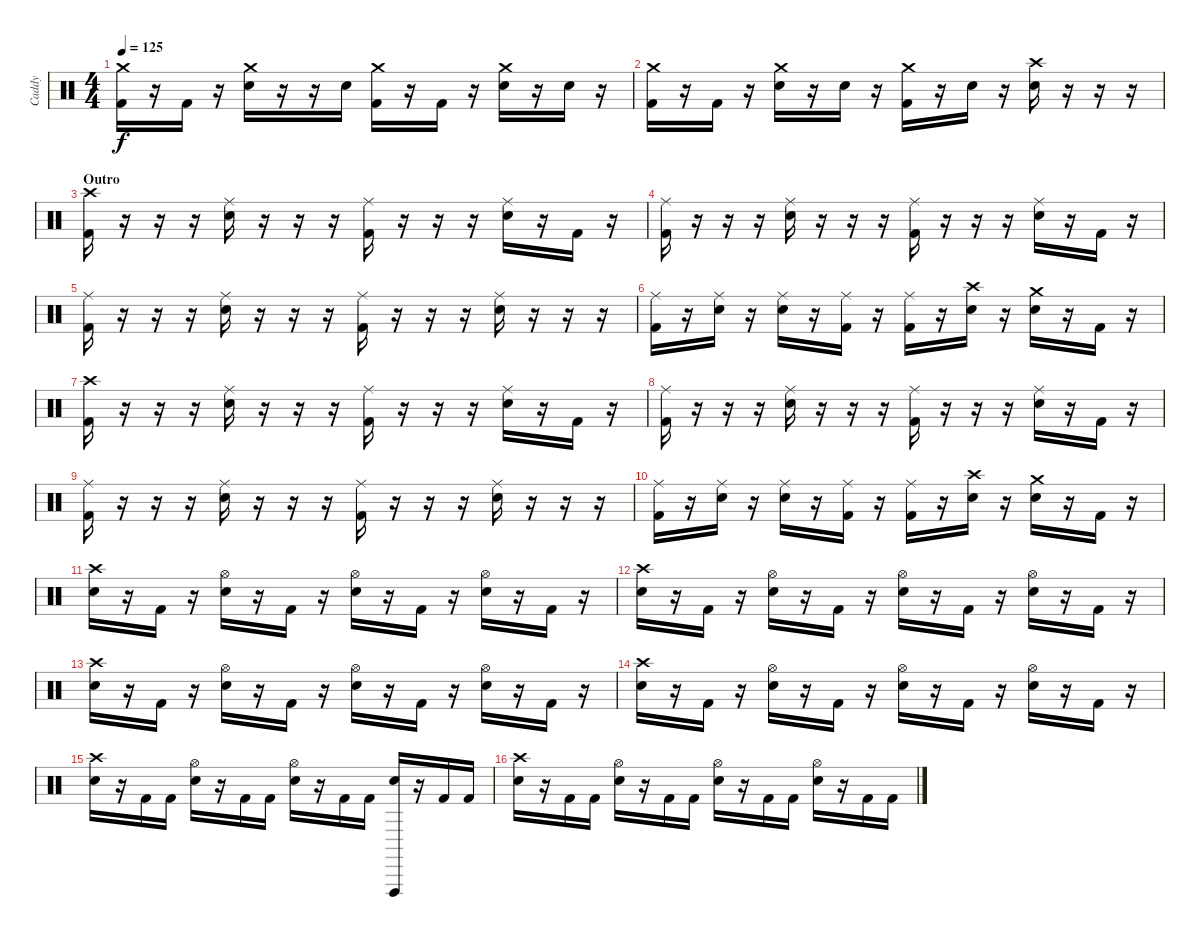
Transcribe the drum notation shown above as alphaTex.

\track ("Caddy" "Caddy") {instrument percussion}
\staff {score}
\articulation defaults
\ts (4 4)
\tempo 125
\clef neutral
\ks c
("Crash medium (hit)" "Kick (hit) 2").16{dy f} r.16 "Kick (hit) 2".16 r.16 ("Crash medium (hit)" "Electric Snare (hit)").16 r.16 r.16 "Electric Snare (hit)".16 ("Crash medium (hit)" "Kick (hit) 2").16 r.16 "Kick (hit) 2".16 r.16 ("Crash medium (hit)" "Electric Snare (hit)").16 r.16 "Electric Snare (hit)".16 r.16 |
("Crash medium (hit)" "Kick (hit) 2").16 r.16 "Kick (hit) 2".16 r.16 ("Crash medium (hit)" "Electric Snare (hit)").16 r.16 "Electric Snare (hit)".16 r.16 ("Crash medium (hit)" "Kick (hit) 2").16 r.16 "Electric Snare (hit)".16 r.16 ("Crash high (hit)" "Electric Snare (hit)").16 r.16 r.16 r.16 |
\section ("" "Outro")
("Crash high (hit)" "Kick (hit) 2").16 r.16 r.16 r.16 ("Ride (middle)" "Electric Snare (hit)").16 r.16 r.16 r.16 ("Ride (middle)" "Kick (hit) 2").16 r.16 r.16 r.16 ("Ride (middle)" "Electric Snare (hit)").16 r.16 "Kick (hit) 2".16 r.16 |
("Ride (middle)" "Kick (hit) 2").16 r.16 r.16 r.16 ("Ride (middle)" "Electric Snare (hit)").16 r.16 r.16 r.16 ("Ride (middle)" "Kick (hit) 2").16 r.16 r.16 r.16 ("Ride (middle)" "Electric Snare (hit)").16 r.16 "Kick (hit) 2".16 r.16 |
("Ride (middle)" "Kick (hit) 2").16 r.16 r.16 r.16 ("Ride (middle)" "Electric Snare (hit)").16 r.16 r.16 r.16 ("Ride (middle)" "Kick (hit) 2").16 r.16 r.16 r.16 ("Ride (middle)" "Electric Snare (hit)").16 r.16 r.16 r.16 |
("Ride (middle)" "Kick (hit) 2").16 r.16 ("Ride (middle)" "Electric Snare (hit)").16 r.16 ("Ride (middle)" "Electric Snare (hit)").16 r.16 ("Ride (middle)" "Kick (hit) 2").16 r.16 ("Ride (middle)" "Kick (hit) 2").16 r.16 ("Crash high (hit)" "Electric Snare (hit)").16 r.16 ("Crash medium (hit)" "Electric Snare (hit)").16 r.16 "Kick (hit) 2".16 r.16 |
("Crash high (hit)" "Kick (hit) 2").16 r.16 r.16 r.16 ("Ride (middle)" "Electric Snare (hit)").16 r.16 r.16 r.16 ("Ride (middle)" "Kick (hit) 2").16 r.16 r.16 r.16 ("Ride (middle)" "Electric Snare (hit)").16 r.16 "Kick (hit) 2".16 r.16 |
("Ride (middle)" "Kick (hit) 2").16 r.16 r.16 r.16 ("Ride (middle)" "Electric Snare (hit)").16 r.16 r.16 r.16 ("Ride (middle)" "Kick (hit) 2").16 r.16 r.16 r.16 ("Ride (middle)" "Electric Snare (hit)").16 r.16 "Kick (hit) 2".16 r.16 |
("Ride (middle)" "Kick (hit) 2").16 r.16 r.16 r.16 ("Ride (middle)" "Electric Snare (hit)").16 r.16 r.16 r.16 ("Ride (middle)" "Kick (hit) 2").16 r.16 r.16 r.16 ("Ride (middle)" "Electric Snare (hit)").16 r.16 r.16 r.16 |
("Ride (middle)" "Kick (hit) 2").16 r.16 ("Ride (middle)" "Electric Snare (hit)").16 r.16 ("Ride (middle)" "Electric Snare (hit)").16 r.16 ("Ride (middle)" "Kick (hit) 2").16 r.16 ("Ride (middle)" "Kick (hit) 2").16 r.16 ("Crash high (hit)" "Electric Snare (hit)").16 r.16 ("Crash medium (hit)" "Electric Snare (hit)").16 r.16 "Kick (hit) 2".16 r.16 |
("Crash high (hit)" "Electric Snare (hit)").16 r.16 "Kick (hit) 2".16 r.16 ("Hi-Hat (open)" "Electric Snare (hit)").16 r.16 "Kick (hit) 2".16 r.16 ("Hi-Hat (open)" "Electric Snare (hit)").16 r.16 "Kick (hit) 2".16 r.16 ("Hi-Hat (open)" "Electric Snare (hit)").16 r.16 "Kick (hit) 2".16 r.16 |
("Crash high (hit)" "Electric Snare (hit)").16 r.16 "Kick (hit) 2".16 r.16 ("Hi-Hat (open)" "Electric Snare (hit)").16 r.16 "Kick (hit) 2".16 r.16 ("Hi-Hat (open)" "Electric Snare (hit)").16 r.16 "Kick (hit) 2".16 r.16 ("Hi-Hat (open)" "Electric Snare (hit)").16 r.16 "Kick (hit) 2".16 r.16 |
("Crash high (hit)" "Electric Snare (hit)").16 r.16 "Kick (hit) 2".16 r.16 ("Hi-Hat (open)" "Electric Snare (hit)").16 r.16 "Kick (hit) 2".16 r.16 ("Hi-Hat (open)" "Electric Snare (hit)").16 r.16 "Kick (hit) 2".16 r.16 ("Hi-Hat (open)" "Electric Snare (hit)").16 r.16 "Kick (hit) 2".16 r.16 |
("Crash high (hit)" "Electric Snare (hit)").16 r.16 "Kick (hit) 2".16 r.16 ("Hi-Hat (open)" "Electric Snare (hit)").16 r.16 "Kick (hit) 2".16 r.16 ("Hi-Hat (open)" "Electric Snare (hit)").16 r.16 "Kick (hit) 2".16 r.16 ("Hi-Hat (open)" "Electric Snare (hit)").16 r.16 "Kick (hit) 2".16 r.16 |
("Crash high (hit)" "Electric Snare (hit)").16 r.16 "Kick (hit) 2".16 "Kick (hit) 2".16 ("Hi-Hat (open)" "Electric Snare (hit)").16 r.16 "Kick (hit) 2".16 "Kick (hit) 2".16 ("Hi-Hat (open)" "Electric Snare (hit)").16 r.16 "Kick (hit) 2".16 "Kick (hit) 2".16 ("Vibraslap (hit)" "Electric Snare (hit)").16 r.16 "Kick (hit) 2".16 "Kick (hit) 2".16 |
("Crash high (hit)" "Electric Snare (hit)").16 r.16 "Kick (hit) 2".16 "Kick (hit) 2".16 ("Hi-Hat (open)" "Electric Snare (hit)").16 r.16 "Kick (hit) 2".16 "Kick (hit) 2".16 ("Hi-Hat (open)" "Electric Snare (hit)").16 r.16 "Kick (hit) 2".16 "Kick (hit) 2".16 ("Hi-Hat (open)" "Electric Snare (hit)").16 r.16 "Kick (hit) 2".16 "Kick (hit) 2".16
